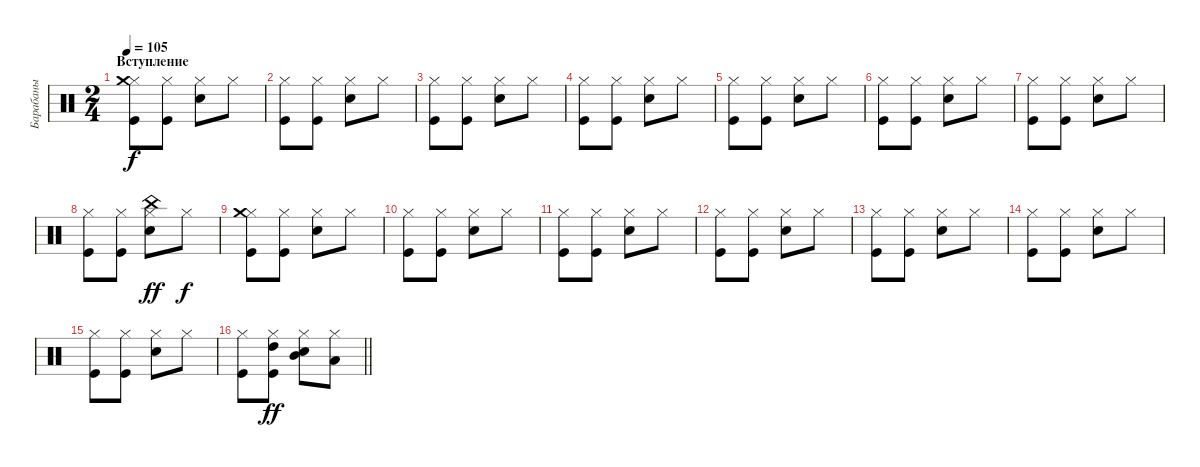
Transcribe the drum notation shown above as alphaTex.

\track ("Барабаны" "Барабаны") {instrument percussion}
\staff {score}
\articulation defaults
\ts (2 4)
\section ("" "Вступление")
\tempo 105
\clef neutral
\ks c
("Kick (hit)" "Hi-Hat (closed)" "Crash medium (hit)").8{dy f} ("Kick (hit)" "Hi-Hat (closed)").8 ("Snare (hit) 2" "Hi-Hat (closed)").8 "Hi-Hat (closed)".8 |
("Kick (hit)" "Hi-Hat (closed)").8 ("Kick (hit)" "Hi-Hat (closed)").8 ("Snare (hit) 2" "Hi-Hat (closed)").8 "Hi-Hat (closed)".8 |
("Kick (hit)" "Hi-Hat (closed)").8 ("Kick (hit)" "Hi-Hat (closed)").8 ("Snare (hit) 2" "Hi-Hat (closed)").8 "Hi-Hat (closed)".8 |
("Kick (hit)" "Hi-Hat (closed)").8 ("Kick (hit)" "Hi-Hat (closed)").8 ("Snare (hit) 2" "Hi-Hat (closed)").8 "Hi-Hat (closed)".8 |
("Kick (hit)" "Hi-Hat (closed)").8 ("Kick (hit)" "Hi-Hat (closed)").8 ("Snare (hit) 2" "Hi-Hat (closed)").8 "Hi-Hat (closed)".8 |
("Kick (hit)" "Hi-Hat (closed)").8 ("Kick (hit)" "Hi-Hat (closed)").8 ("Snare (hit) 2" "Hi-Hat (closed)").8 "Hi-Hat (closed)".8 |
("Kick (hit)" "Hi-Hat (closed)").8 ("Kick (hit)" "Hi-Hat (closed)").8 ("Snare (hit) 2" "Hi-Hat (closed)").8 "Hi-Hat (closed)".8 |
("Kick (hit)" "Hi-Hat (closed)").8 ("Kick (hit)" "Hi-Hat (closed)").8 ("Snare (hit) 2" "Hi-Hat (closed)" "China (hit)").8{dy ff} "Hi-Hat (closed)".8{dy f} |
("Kick (hit)" "Hi-Hat (closed)" "Crash medium (hit)").8 ("Kick (hit)" "Hi-Hat (closed)").8 ("Snare (hit) 2" "Hi-Hat (closed)").8 "Hi-Hat (closed)".8 |
("Kick (hit)" "Hi-Hat (closed)").8 ("Kick (hit)" "Hi-Hat (closed)").8 ("Snare (hit) 2" "Hi-Hat (closed)").8 "Hi-Hat (closed)".8 |
("Kick (hit)" "Hi-Hat (closed)").8 ("Kick (hit)" "Hi-Hat (closed)").8 ("Snare (hit) 2" "Hi-Hat (closed)").8 "Hi-Hat (closed)".8 |
("Kick (hit)" "Hi-Hat (closed)").8 ("Kick (hit)" "Hi-Hat (closed)").8 ("Snare (hit) 2" "Hi-Hat (closed)").8 "Hi-Hat (closed)".8 |
("Kick (hit)" "Hi-Hat (closed)").8 ("Kick (hit)" "Hi-Hat (closed)").8 ("Snare (hit) 2" "Hi-Hat (closed)").8 "Hi-Hat (closed)".8 |
("Kick (hit)" "Hi-Hat (closed)").8 ("Kick (hit)" "Hi-Hat (closed)").8 ("Snare (hit) 2" "Hi-Hat (closed)").8 "Hi-Hat (closed)".8 |
("Kick (hit)" "Hi-Hat (closed)").8 ("Kick (hit)" "Hi-Hat (closed)").8 ("Snare (hit) 2" "Hi-Hat (closed)").8 "Hi-Hat (closed)".8 |
\barLineRight lightlight
("Kick (hit)" "Hi-Hat (closed)").8 ("Kick (hit)" "Hi-Hat (closed)" "High Tom (hit)").8{dy ff} ("Snare (hit) 2" "Hi-Hat (closed)" "Mid Tom (hit)").8 ("Hi-Hat (closed)" "Low Tom (hit)").8
